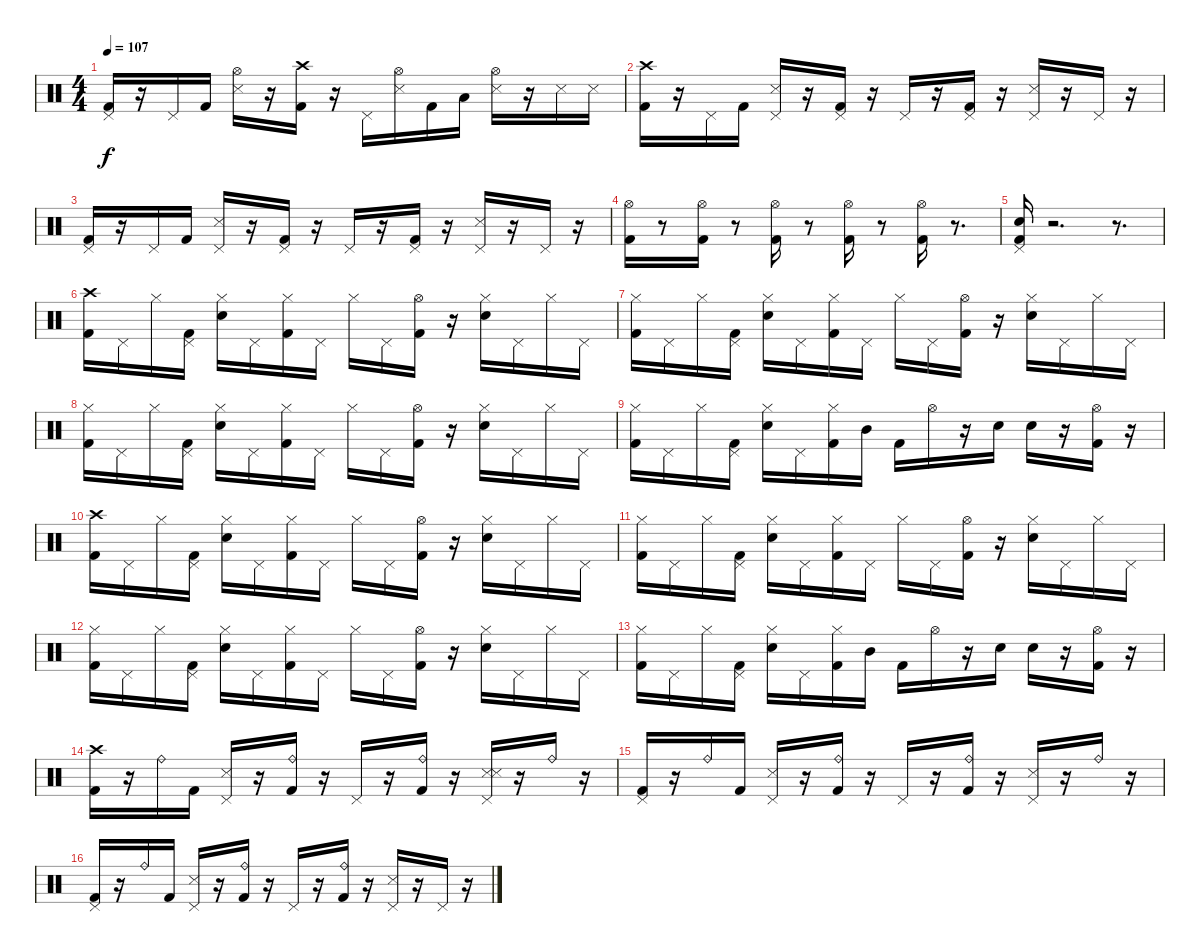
\track "" {instrument percussion}
\staff {score}
\articulation defaults
\ts (4 4)
\tempo 107
\clef neutral
\ks c
("Pedal Hi-Hat (hit)" "Kick (hit) 2").16{dy f} r.16 "Pedal Hi-Hat (hit)".16 "Kick (hit) 2".16 ("Hi-Hat (open)" "Snare (side stick) 3").16 r.16 ("Crash high (hit)" "Kick (hit) 2").16 r.16 "Pedal Hi-Hat (hit)".16 ("Hi-Hat (open)" "Snare (side stick) 3").16 "Kick (hit) 2".16 "Low Tom (hit)".16 ("Hi-Hat (open)" "Snare (side stick) 3").16 r.16 "Snare (side stick) 3".16 "Snare (side stick) 3".16 |
("Crash high (hit)" "Kick (hit) 2").16 r.16 "Pedal Hi-Hat (hit)".16 "Kick (hit) 2".16 ("Pedal Hi-Hat (hit)" "Snare (side stick) 3").16 r.16 ("Pedal Hi-Hat (hit)" "Kick (hit) 2").16 r.16 "Pedal Hi-Hat (hit)".16 r.16 ("Pedal Hi-Hat (hit)" "Kick (hit) 2").16 r.16 ("Pedal Hi-Hat (hit)" "Snare (side stick) 3").16 r.16 "Pedal Hi-Hat (hit)".16 r.16 |
("Pedal Hi-Hat (hit)" "Kick (hit) 2").16 r.16 "Pedal Hi-Hat (hit)".16 "Kick (hit) 2".16 ("Pedal Hi-Hat (hit)" "Snare (side stick) 3").16 r.16 ("Pedal Hi-Hat (hit)" "Kick (hit) 2").16 r.16 "Pedal Hi-Hat (hit)".16 r.16 ("Pedal Hi-Hat (hit)" "Kick (hit) 2").16 r.16 ("Pedal Hi-Hat (hit)" "Snare (side stick) 3").16 r.16 "Pedal Hi-Hat (hit)".16 r.16 |
("Hi-Hat (open)" "Kick (hit) 2").16 r.8 ("Hi-Hat (open)" "Kick (hit) 2").16 r.8 ("Hi-Hat (open)" "Kick (hit) 2").16 r.8 ("Hi-Hat (open)" "Kick (hit) 2").16 r.8 ("Hi-Hat (open)" "Kick (hit) 2").16 r.8{d} |
("Pedal Hi-Hat (hit)" "Electric Snare (hit)" "Kick (hit) 2").16 r.2{d} r.8{d} |
("Crash high (hit)" "Kick (hit) 2").16 "Pedal Hi-Hat (hit)".16 "Hi-Hat (closed)".16 ("Pedal Hi-Hat (hit)" "Kick (hit) 2").16 ("Hi-Hat (closed)" "Electric Snare (hit)").16 "Pedal Hi-Hat (hit)".16 ("Hi-Hat (closed)" "Kick (hit) 2").16 "Pedal Hi-Hat (hit)".16 "Hi-Hat (closed)".16 "Pedal Hi-Hat (hit)".16 ("Hi-Hat (open)" "Kick (hit) 2").16 r.16 ("Hi-Hat (closed)" "Electric Snare (hit)").16 "Pedal Hi-Hat (hit)".16 "Hi-Hat (closed)".16 "Pedal Hi-Hat (hit)".16 |
("Hi-Hat (closed)" "Kick (hit) 2").16 "Pedal Hi-Hat (hit)".16 "Hi-Hat (closed)".16 ("Pedal Hi-Hat (hit)" "Kick (hit) 2").16 ("Hi-Hat (closed)" "Electric Snare (hit)").16 "Pedal Hi-Hat (hit)".16 ("Hi-Hat (closed)" "Kick (hit) 2").16 "Pedal Hi-Hat (hit)".16 "Hi-Hat (closed)".16 "Pedal Hi-Hat (hit)".16 ("Hi-Hat (open)" "Kick (hit) 2").16 r.16 ("Hi-Hat (closed)" "Electric Snare (hit)").16 "Pedal Hi-Hat (hit)".16 "Hi-Hat (closed)".16 "Pedal Hi-Hat (hit)".16 |
("Hi-Hat (closed)" "Kick (hit) 2").16 "Pedal Hi-Hat (hit)".16 "Hi-Hat (closed)".16 ("Pedal Hi-Hat (hit)" "Kick (hit) 2").16 ("Hi-Hat (closed)" "Electric Snare (hit)").16 "Pedal Hi-Hat (hit)".16 ("Hi-Hat (closed)" "Kick (hit) 2").16 "Pedal Hi-Hat (hit)".16 "Hi-Hat (closed)".16 "Pedal Hi-Hat (hit)".16 ("Hi-Hat (open)" "Kick (hit) 2").16 r.16 ("Hi-Hat (closed)" "Electric Snare (hit)").16 "Pedal Hi-Hat (hit)".16 "Hi-Hat (closed)".16 "Pedal Hi-Hat (hit)".16 |
("Hi-Hat (closed)" "Kick (hit) 2").16 "Pedal Hi-Hat (hit)".16 "Hi-Hat (closed)".16 ("Pedal Hi-Hat (hit)" "Kick (hit) 2").16 ("Hi-Hat (closed)" "Electric Snare (hit)").16 "Pedal Hi-Hat (hit)".16 ("Hi-Hat (closed)" "Kick (hit) 2").16 "Mid Tom (hit)".16 "Kick (hit) 2".16 "Hi-Hat (open)".16 r.16 "Electric Snare (hit)".16 "Electric Snare (hit)".16 r.16 ("Hi-Hat (open)" "Kick (hit) 2").16 r.16 |
("Crash high (hit)" "Kick (hit) 2").16 "Pedal Hi-Hat (hit)".16 "Hi-Hat (closed)".16 ("Pedal Hi-Hat (hit)" "Kick (hit) 2").16 ("Hi-Hat (closed)" "Electric Snare (hit)").16 "Pedal Hi-Hat (hit)".16 ("Hi-Hat (closed)" "Kick (hit) 2").16 "Pedal Hi-Hat (hit)".16 "Hi-Hat (closed)".16 "Pedal Hi-Hat (hit)".16 ("Hi-Hat (open)" "Kick (hit) 2").16 r.16 ("Hi-Hat (closed)" "Electric Snare (hit)").16 "Pedal Hi-Hat (hit)".16 "Hi-Hat (closed)".16 "Pedal Hi-Hat (hit)".16 |
("Hi-Hat (closed)" "Kick (hit) 2").16 "Pedal Hi-Hat (hit)".16 "Hi-Hat (closed)".16 ("Pedal Hi-Hat (hit)" "Kick (hit) 2").16 ("Hi-Hat (closed)" "Electric Snare (hit)").16 "Pedal Hi-Hat (hit)".16 ("Hi-Hat (closed)" "Kick (hit) 2").16 "Pedal Hi-Hat (hit)".16 "Hi-Hat (closed)".16 "Pedal Hi-Hat (hit)".16 ("Hi-Hat (open)" "Kick (hit) 2").16 r.16 ("Hi-Hat (closed)" "Electric Snare (hit)").16 "Pedal Hi-Hat (hit)".16 "Hi-Hat (closed)".16 "Pedal Hi-Hat (hit)".16 |
("Hi-Hat (closed)" "Kick (hit) 2").16 "Pedal Hi-Hat (hit)".16 "Hi-Hat (closed)".16 ("Pedal Hi-Hat (hit)" "Kick (hit) 2").16 ("Hi-Hat (closed)" "Electric Snare (hit)").16 "Pedal Hi-Hat (hit)".16 ("Hi-Hat (closed)" "Kick (hit) 2").16 "Pedal Hi-Hat (hit)".16 "Hi-Hat (closed)".16 "Pedal Hi-Hat (hit)".16 ("Hi-Hat (open)" "Kick (hit) 2").16 r.16 ("Hi-Hat (closed)" "Electric Snare (hit)").16 "Pedal Hi-Hat (hit)".16 "Hi-Hat (closed)".16 "Pedal Hi-Hat (hit)".16 |
("Hi-Hat (closed)" "Kick (hit) 2").16 "Pedal Hi-Hat (hit)".16 "Hi-Hat (closed)".16 ("Pedal Hi-Hat (hit)" "Kick (hit) 2").16 ("Hi-Hat (closed)" "Electric Snare (hit)").16 "Pedal Hi-Hat (hit)".16 ("Hi-Hat (closed)" "Kick (hit) 2").16 "Mid Tom (hit)".16 "Kick (hit) 2".16 "Hi-Hat (open)".16 r.16 "Electric Snare (hit)".16 "Electric Snare (hit)".16 r.16 ("Hi-Hat (open)" "Kick (hit) 2").16 r.16 |
("Crash high (hit)" "Kick (hit) 2").16 r.16 "Ride (bell)".16 "Kick (hit) 2".16 ("Pedal Hi-Hat (hit)" "Snare (side stick) 3").16 r.16 ("Ride (bell)" "Kick (hit) 2").16 r.16 "Pedal Hi-Hat (hit)".16 r.16 ("Ride (bell)" "Kick (hit) 2").16 r.16 ("Pedal Hi-Hat (hit)" "Snare (side stick) 3" "Snare (side stick) 3").16 r.16 "Ride (bell)".16 r.16 |
("Pedal Hi-Hat (hit)" "Kick (hit) 2").16 r.16 "Ride (bell)".16 "Kick (hit) 2".16 ("Pedal Hi-Hat (hit)" "Snare (side stick) 3").16 r.16 ("Ride (bell)" "Kick (hit) 2").16 r.16 "Pedal Hi-Hat (hit)".16 r.16 ("Ride (bell)" "Kick (hit) 2").16 r.16 ("Pedal Hi-Hat (hit)" "Snare (side stick) 3").16 r.16 "Ride (bell)".16 r.16 |
("Pedal Hi-Hat (hit)" "Kick (hit) 2").16 r.16 "Ride (bell)".16 "Kick (hit) 2".16 ("Pedal Hi-Hat (hit)" "Snare (side stick) 3").16 r.16 ("Ride (bell)" "Kick (hit) 2").16 r.16 "Pedal Hi-Hat (hit)".16 r.16 ("Ride (bell)" "Kick (hit) 2").16 r.16 ("Pedal Hi-Hat (hit)" "Snare (side stick) 3").16 r.16 "Pedal Hi-Hat (hit)".16 r.16
